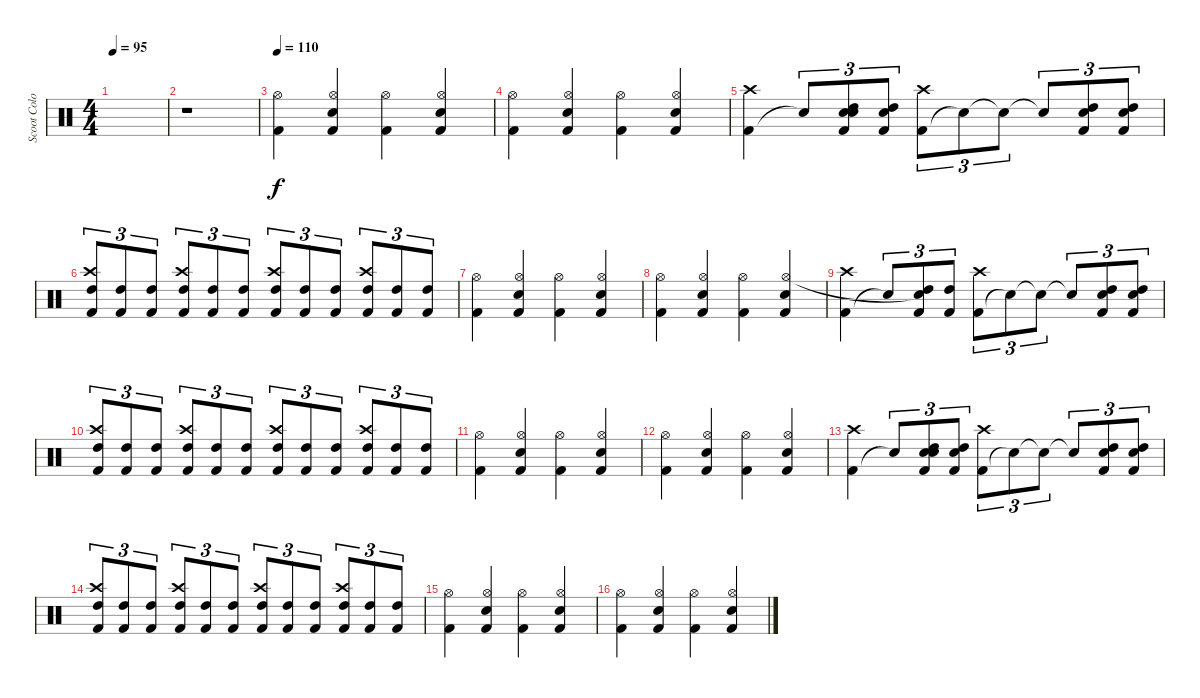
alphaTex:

\track ("Scoot Colombus" "Scoot Colo") {instrument percussion}
\staff {score}
\articulation defaults
\ts (4 4)
\tempo 95
\clef neutral
\ks c
|
r.1 |
\tempo 110
("Kick (hit) 2" "Hi-Hat (open)").4 ("Kick (hit) 2" "Snare (hit) 2" "Hi-Hat (open)").4 ("Kick (hit) 2" "Hi-Hat (open)").4 ("Kick (hit) 2" "Snare (hit) 2" "Hi-Hat (open)").4 |
("Kick (hit) 2" "Hi-Hat (open)").4 ("Kick (hit) 2" "Snare (hit) 2" "Hi-Hat (open)").4 ("Kick (hit) 2" "Hi-Hat (open)").4 ("Kick (hit) 2" "Snare (hit) 2" "Hi-Hat (open)").4 |
("Kick (hit) 2" "Crash high (hit)").4 "Snare (hit)"{t}.8{tu (3 2)} ("Kick (hit) 2" "High Tom (hit)" "Snare (hit) 2" "Snare (hit)").8{tu (3 2)} ("Kick (hit) 2" "High Tom (hit)" "Snare (hit) 2").8{tu (3 2)} ("Kick (hit) 2" "Crash high (hit)").8{tu (3 2)} "Snare (hit)"{t}.8{tu (3 2)} "Snare (hit)"{t}.8{tu (3 2)} "Snare (hit)"{t}.8{tu (3 2)} ("Kick (hit) 2" "High Tom (hit)" "Snare (hit) 2").8{tu (3 2)} ("Kick (hit) 2" "High Tom (hit)" "Snare (hit) 2").8{tu (3 2)} |
("Kick (hit) 2" "High Tom (hit)" "Crash high (hit)").8{tu (3 2)} ("Kick (hit) 2" "High Tom (hit)").8{tu (3 2)} ("Kick (hit) 2" "High Tom (hit)").8{tu (3 2)} ("Kick (hit) 2" "High Tom (hit)" "Crash high (hit)").8{tu (3 2)} ("Kick (hit) 2" "High Tom (hit)").8{tu (3 2)} ("Kick (hit) 2" "High Tom (hit)").8{tu (3 2)} ("Kick (hit) 2" "High Tom (hit)" "Crash high (hit)").8{tu (3 2)} ("Kick (hit) 2" "High Tom (hit)").8{tu (3 2)} ("Kick (hit) 2" "High Tom (hit)").8{tu (3 2)} ("Kick (hit) 2" "High Tom (hit)" "Crash high (hit)").8{tu (3 2)} ("Kick (hit) 2" "High Tom (hit)").8{tu (3 2)} ("Kick (hit) 2" "High Tom (hit)").8{tu (3 2)} |
("Kick (hit) 2" "Hi-Hat (open)").4 ("Kick (hit) 2" "Snare (hit) 2" "Hi-Hat (open)").4 ("Kick (hit) 2" "Hi-Hat (open)").4 ("Kick (hit) 2" "Snare (hit) 2" "Hi-Hat (open)").4 |
("Kick (hit) 2" "Hi-Hat (open)").4 ("Kick (hit) 2" "Snare (hit) 2" "Hi-Hat (open)").4 ("Kick (hit) 2" "Hi-Hat (open)").4 ("Kick (hit) 2" "Snare (hit) 2" "Hi-Hat (open)").4 |
("Kick (hit) 2" "Crash high (hit)").4 "Snare (hit)"{t}.8{tu (3 2)} ("Kick (hit) 2" "High Tom (hit)" "Snare (hit)"{t}).8{tu (3 2)} ("Kick (hit) 2" "High Tom (hit)").8{tu (3 2)} ("Kick (hit) 2" "Crash high (hit)").8{tu (3 2)} "Snare (hit)"{t}.8{tu (3 2)} "Snare (hit)"{t}.8{tu (3 2)} "Snare (hit)"{t}.8{tu (3 2)} ("Kick (hit) 2" "High Tom (hit)" "Snare (hit) 2").8{tu (3 2)} ("Kick (hit) 2" "High Tom (hit)" "Snare (hit) 2").8{tu (3 2)} |
("Kick (hit) 2" "High Tom (hit)" "Crash high (hit)").8{tu (3 2)} ("Kick (hit) 2" "High Tom (hit)").8{tu (3 2)} ("Kick (hit) 2" "High Tom (hit)").8{tu (3 2)} ("Kick (hit) 2" "High Tom (hit)" "Crash high (hit)").8{tu (3 2)} ("Kick (hit) 2" "High Tom (hit)").8{tu (3 2)} ("Kick (hit) 2" "High Tom (hit)").8{tu (3 2)} ("Kick (hit) 2" "High Tom (hit)" "Crash high (hit)").8{tu (3 2)} ("Kick (hit) 2" "High Tom (hit)").8{tu (3 2)} ("Kick (hit) 2" "High Tom (hit)").8{tu (3 2)} ("Kick (hit) 2" "High Tom (hit)" "Crash high (hit)").8{tu (3 2)} ("Kick (hit) 2" "High Tom (hit)").8{tu (3 2)} ("Kick (hit) 2" "High Tom (hit)").8{tu (3 2)} |
("Kick (hit) 2" "Hi-Hat (open)").4 ("Kick (hit) 2" "Snare (hit) 2" "Hi-Hat (open)").4 ("Kick (hit) 2" "Hi-Hat (open)").4 ("Kick (hit) 2" "Snare (hit) 2" "Hi-Hat (open)").4 |
("Kick (hit) 2" "Hi-Hat (open)").4 ("Kick (hit) 2" "Snare (hit) 2" "Hi-Hat (open)").4 ("Kick (hit) 2" "Hi-Hat (open)").4 ("Kick (hit) 2" "Snare (hit) 2" "Hi-Hat (open)").4 |
("Kick (hit) 2" "Crash high (hit)").4 "Snare (hit)"{t}.8{tu (3 2)} ("Kick (hit) 2" "High Tom (hit)" "Snare (hit) 2" "Snare (hit)").8{tu (3 2)} ("Kick (hit) 2" "High Tom (hit)" "Snare (hit) 2").8{tu (3 2)} ("Kick (hit) 2" "Crash high (hit)").8{tu (3 2)} "Snare (hit)"{t}.8{tu (3 2)} "Snare (hit)"{t}.8{tu (3 2)} "Snare (hit)"{t}.8{tu (3 2)} ("Kick (hit) 2" "High Tom (hit)" "Snare (hit) 2").8{tu (3 2)} ("Kick (hit) 2" "High Tom (hit)" "Snare (hit) 2").8{tu (3 2)} |
("Kick (hit) 2" "High Tom (hit)" "Crash high (hit)").8{tu (3 2)} ("Kick (hit) 2" "High Tom (hit)").8{tu (3 2)} ("Kick (hit) 2" "High Tom (hit)").8{tu (3 2)} ("Kick (hit) 2" "High Tom (hit)" "Crash high (hit)").8{tu (3 2)} ("Kick (hit) 2" "High Tom (hit)").8{tu (3 2)} ("Kick (hit) 2" "High Tom (hit)").8{tu (3 2)} ("Kick (hit) 2" "High Tom (hit)" "Crash high (hit)").8{tu (3 2)} ("Kick (hit) 2" "High Tom (hit)").8{tu (3 2)} ("Kick (hit) 2" "High Tom (hit)").8{tu (3 2)} ("Kick (hit) 2" "High Tom (hit)" "Crash high (hit)").8{tu (3 2)} ("Kick (hit) 2" "High Tom (hit)").8{tu (3 2)} ("Kick (hit) 2" "High Tom (hit)").8{tu (3 2)} |
("Kick (hit) 2" "Hi-Hat (open)").4 ("Kick (hit) 2" "Snare (hit) 2" "Hi-Hat (open)").4 ("Kick (hit) 2" "Hi-Hat (open)").4 ("Kick (hit) 2" "Snare (hit) 2" "Hi-Hat (open)").4 |
("Kick (hit) 2" "Hi-Hat (open)").4 ("Kick (hit) 2" "Snare (hit) 2" "Hi-Hat (open)").4 ("Kick (hit) 2" "Hi-Hat (open)").4 ("Kick (hit) 2" "Snare (hit) 2" "Hi-Hat (open)").4
